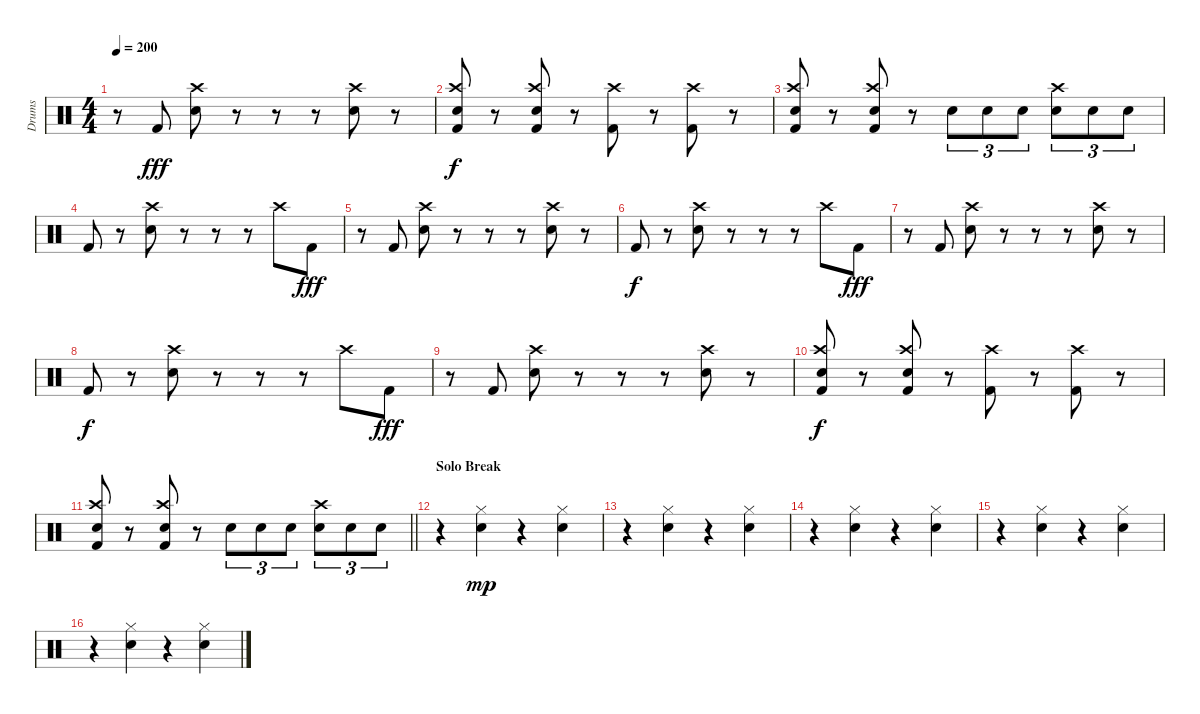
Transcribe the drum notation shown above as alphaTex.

\track ("Drums" "Drums") {instrument percussion}
\staff {score}
\articulation defaults
\ts (4 4)
\tempo 200
\clef neutral
\ks c
r.8{dy fff} "Kick (hit) 2".8 ("Crash high (hit)" "Snare (hit) 2").8 r.8 r.8 r.8 ("Crash high (hit)" "Snare (hit) 2").8 r.8 |
("Crash high (hit)" "Snare (hit) 2" "Kick (hit) 2").8{dy f} r.8 ("Crash high (hit)" "Snare (hit) 2" "Kick (hit) 2").8 r.8 ("Crash high (hit)" "Kick (hit) 2").8 r.8 ("Crash high (hit)" "Kick (hit) 2").8 r.8 |
("Crash high (hit)" "Snare (hit) 2" "Kick (hit) 2").8 r.8 ("Crash high (hit)" "Snare (hit) 2" "Kick (hit) 2").8 r.8 "Snare (hit) 2".8{tu (3 2)} "Snare (hit) 2".8{tu (3 2)} "Snare (hit) 2".8{tu (3 2)} ("Crash high (hit)" "Snare (hit) 2").8{tu (3 2)} "Snare (hit) 2".8{tu (3 2)} "Snare (hit) 2".8{tu (3 2)} |
"Kick (hit) 2".8 r.8 ("Crash high (hit)" "Snare (hit) 2").8 r.8 r.8 r.8 "Crash high (hit)".8 "Kick (hit) 2".8{dy fff} |
r.8 "Kick (hit) 2".8 ("Crash high (hit)" "Snare (hit) 2").8 r.8 r.8 r.8 ("Crash high (hit)" "Snare (hit) 2").8 r.8 |
"Kick (hit) 2".8{dy f} r.8 ("Crash high (hit)" "Snare (hit) 2").8 r.8 r.8 r.8 "Crash high (hit)".8 "Kick (hit) 2".8{dy fff} |
r.8 "Kick (hit) 2".8 ("Crash high (hit)" "Snare (hit) 2").8 r.8 r.8 r.8 ("Crash high (hit)" "Snare (hit) 2").8 r.8 |
"Kick (hit) 2".8{dy f} r.8 ("Crash high (hit)" "Snare (hit) 2").8 r.8 r.8 r.8 "Crash high (hit)".8 "Kick (hit) 2".8{dy fff} |
r.8 "Kick (hit) 2".8 ("Crash high (hit)" "Snare (hit) 2").8 r.8 r.8 r.8 ("Crash high (hit)" "Snare (hit) 2").8 r.8 |
("Crash high (hit)" "Snare (hit) 2" "Kick (hit) 2").8{dy f} r.8 ("Crash high (hit)" "Snare (hit) 2" "Kick (hit) 2").8 r.8 ("Crash high (hit)" "Kick (hit) 2").8 r.8 ("Crash high (hit)" "Kick (hit) 2").8 r.8 |
\barLineRight lightlight
("Crash high (hit)" "Snare (hit) 2" "Kick (hit) 2").8 r.8 ("Crash high (hit)" "Snare (hit) 2" "Kick (hit) 2").8 r.8 "Snare (hit) 2".8{tu (3 2)} "Snare (hit) 2".8{tu (3 2)} "Snare (hit) 2".8{tu (3 2)} ("Crash high (hit)" "Snare (hit) 2").8{tu (3 2)} "Snare (hit) 2".8{tu (3 2)} "Snare (hit) 2".8{tu (3 2)} |
\section ("" "Solo Break")
r.4 ("Hi-Hat (closed)" "Snare (hit) 2").4{dy mp} r.4 ("Hi-Hat (closed)" "Snare (hit) 2").4 |
r.4 ("Hi-Hat (closed)" "Snare (hit) 2").4 r.4 ("Hi-Hat (closed)" "Snare (hit) 2").4 |
r.4 ("Hi-Hat (closed)" "Snare (hit) 2").4 r.4 ("Hi-Hat (closed)" "Snare (hit) 2").4 |
r.4 ("Hi-Hat (closed)" "Snare (hit) 2").4 r.4 ("Hi-Hat (closed)" "Snare (hit) 2").4 |
r.4 ("Hi-Hat (closed)" "Snare (hit) 2").4 r.4 ("Hi-Hat (closed)" "Snare (hit) 2").4
